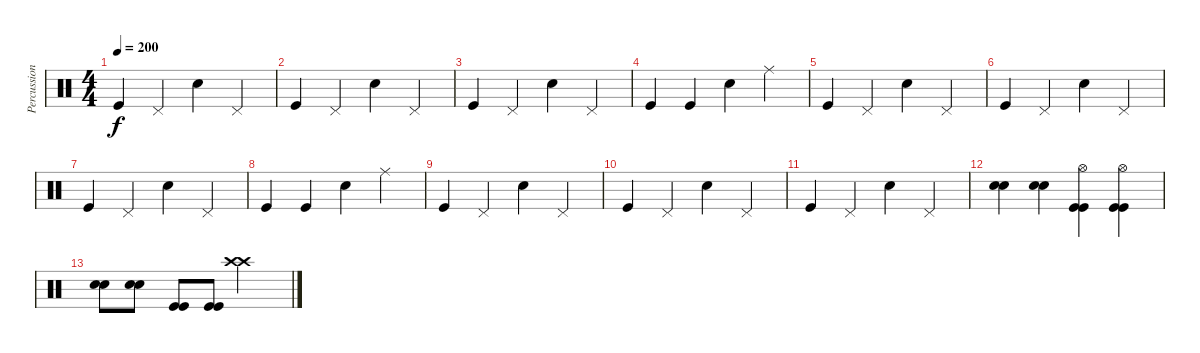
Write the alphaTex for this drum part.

\track ("Percussion" "Percussion") {instrument percussion}
\staff {score}
\articulation defaults
\ts (4 4)
\tempo 200
\clef neutral
\ks c "Kick (hit)".4{dy f} "Pedal Hi-Hat (hit)".4 "Snare (hit) 2".4 "Pedal Hi-Hat (hit)".4
|
"Kick (hit)".4 "Pedal Hi-Hat (hit)".4 "Snare (hit) 2".4 "Pedal Hi-Hat (hit)".4 |
"Kick (hit)".4 "Pedal Hi-Hat (hit)".4 "Snare (hit) 2".4 "Pedal Hi-Hat (hit)".4 |
"Kick (hit)".4 "Kick (hit)".4 "Snare (hit) 2".4 "Ride (middle)".4 |
"Kick (hit)".4 "Pedal Hi-Hat (hit)".4 "Snare (hit) 2".4 "Pedal Hi-Hat (hit)".4 |
"Kick (hit)".4 "Pedal Hi-Hat (hit)".4 "Snare (hit) 2".4 "Pedal Hi-Hat (hit)".4 |
"Kick (hit)".4 "Pedal Hi-Hat (hit)".4 "Snare (hit) 2".4 "Pedal Hi-Hat (hit)".4 |
"Kick (hit)".4 "Kick (hit)".4 "Snare (hit) 2".4 "Ride (middle)".4 |
"Kick (hit)".4 "Pedal Hi-Hat (hit)".4 "Snare (hit) 2".4 "Pedal Hi-Hat (hit)".4 |
"Kick (hit)".4 "Pedal Hi-Hat (hit)".4 "Snare (hit) 2".4 "Pedal Hi-Hat (hit)".4 |
"Kick (hit)".4 "Pedal Hi-Hat (hit)".4 "Snare (hit) 2".4 "Pedal Hi-Hat (hit)".4 |
("Snare (hit) 2" "Snare (hit) 2").4 ("Snare (hit) 2" "Snare (hit) 2").4 ("Kick (hit)" "Kick (hit)" "Hi-Hat (open)").4 ("Kick (hit)" "Kick (hit)" "Hi-Hat (open)").4 |
("Snare (hit) 2" "Snare (hit) 2").8 ("Snare (hit) 2" "Snare (hit) 2").8 ("Kick (hit)" "Kick (hit)").8 ("Kick (hit)" "Kick (hit)").8 ("Crash high (hit)" "Crash high (hit)").2
